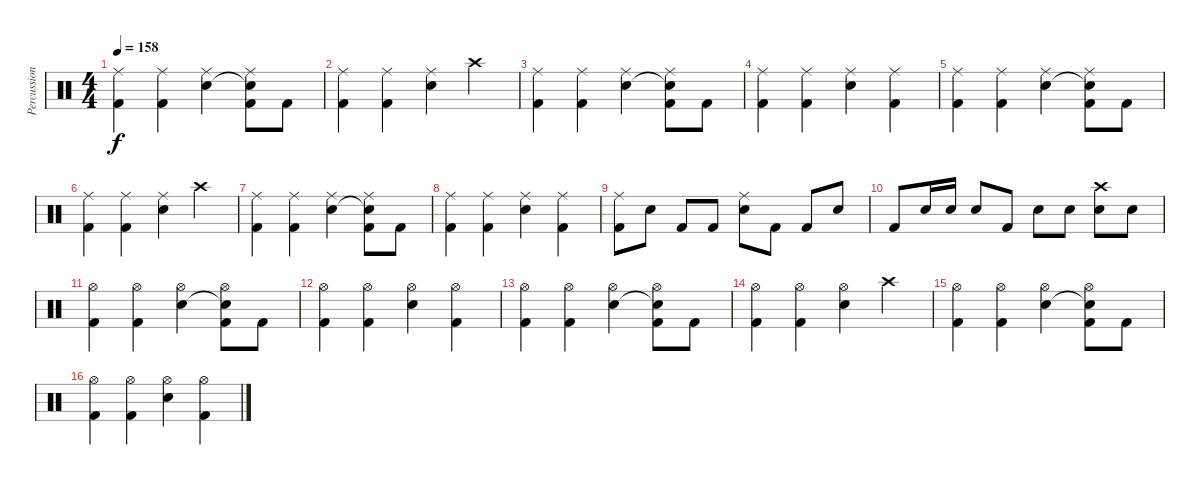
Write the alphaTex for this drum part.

\track ("Percussions" "Percussion") {instrument percussion}
\staff {score}
\articulation defaults
\ts (4 4)
\tempo 158
\clef neutral
\ks c
("Ride (middle)" "Kick (hit) 2").4{dy f} ("Ride (middle)" "Kick (hit) 2").4 ("Ride (middle)" "Electric Snare (hit)").4 ("Ride (middle)" "Snare (hit)"{t} "Kick (hit) 2").8 "Kick (hit) 2".8 |
("Ride (middle)" "Kick (hit) 2").4 ("Ride (middle)" "Kick (hit) 2").4 ("Ride (middle)" "Electric Snare (hit)").4 "Crash high (hit)".4 |
("Ride (middle)" "Kick (hit) 2").4 ("Ride (middle)" "Kick (hit) 2").4 ("Ride (middle)" "Electric Snare (hit)").4 ("Ride (middle)" "Snare (hit)"{t} "Kick (hit) 2").8 "Kick (hit) 2".8 |
("Ride (middle)" "Kick (hit) 2").4 ("Ride (middle)" "Kick (hit) 2").4 ("Ride (middle)" "Electric Snare (hit)").4 ("Ride (middle)" "Kick (hit) 2").4 |
("Ride (middle)" "Kick (hit) 2").4 ("Ride (middle)" "Kick (hit) 2").4 ("Ride (middle)" "Electric Snare (hit)").4 ("Ride (middle)" "Snare (hit)"{t} "Kick (hit) 2").8 "Kick (hit) 2".8 |
("Ride (middle)" "Kick (hit) 2").4 ("Ride (middle)" "Kick (hit) 2").4 ("Ride (middle)" "Electric Snare (hit)").4 "Crash high (hit)".4 |
("Ride (middle)" "Kick (hit) 2").4 ("Ride (middle)" "Kick (hit) 2").4 ("Ride (middle)" "Electric Snare (hit)").4 ("Ride (middle)" "Snare (hit)"{t} "Kick (hit) 2").8 "Kick (hit) 2".8 |
("Ride (middle)" "Kick (hit) 2").4 ("Ride (middle)" "Kick (hit) 2").4 ("Ride (middle)" "Electric Snare (hit)").4 ("Ride (middle)" "Kick (hit) 2").4 |
("Ride (middle)" "Kick (hit) 2").8 "Electric Snare (hit)".8 "Kick (hit) 2".8 "Kick (hit) 2".8 ("Ride (middle)" "Electric Snare (hit)").8 "Kick (hit) 2".8 "Kick (hit) 2".8 "Electric Snare (hit)".8 |
"Kick (hit) 2".8 "Electric Snare (hit)".16 "Electric Snare (hit)".16 "Electric Snare (hit)".8 "Kick (hit) 2".8 "Electric Snare (hit)".8 "Electric Snare (hit)".8 ("Crash high (hit)" "Electric Snare (hit)").8 "Electric Snare (hit)".8 |
("Hi-Hat (open)" "Kick (hit) 2").4 ("Hi-Hat (open)" "Kick (hit) 2").4 ("Hi-Hat (open)" "Electric Snare (hit)").4 ("Hi-Hat (open)" "Snare (hit)"{t} "Kick (hit) 2").8 "Kick (hit) 2".8 |
("Hi-Hat (open)" "Kick (hit) 2").4 ("Hi-Hat (open)" "Kick (hit) 2").4 ("Hi-Hat (open)" "Electric Snare (hit)").4 ("Hi-Hat (open)" "Kick (hit) 2").4 |
("Hi-Hat (open)" "Kick (hit) 2").4 ("Hi-Hat (open)" "Kick (hit) 2").4 ("Hi-Hat (open)" "Electric Snare (hit)").4 ("Hi-Hat (open)" "Snare (hit)"{t} "Kick (hit) 2").8 "Kick (hit) 2".8 |
("Hi-Hat (open)" "Kick (hit) 2").4 ("Hi-Hat (open)" "Kick (hit) 2").4 ("Hi-Hat (open)" "Electric Snare (hit)").4 "Crash high (hit)".4 |
("Hi-Hat (open)" "Kick (hit) 2").4 ("Hi-Hat (open)" "Kick (hit) 2").4 ("Hi-Hat (open)" "Electric Snare (hit)").4 ("Hi-Hat (open)" "Snare (hit)"{t} "Kick (hit) 2").8 "Kick (hit) 2".8 |
("Hi-Hat (open)" "Kick (hit) 2").4 ("Hi-Hat (open)" "Kick (hit) 2").4 ("Hi-Hat (open)" "Electric Snare (hit)").4 ("Hi-Hat (open)" "Kick (hit) 2").4
